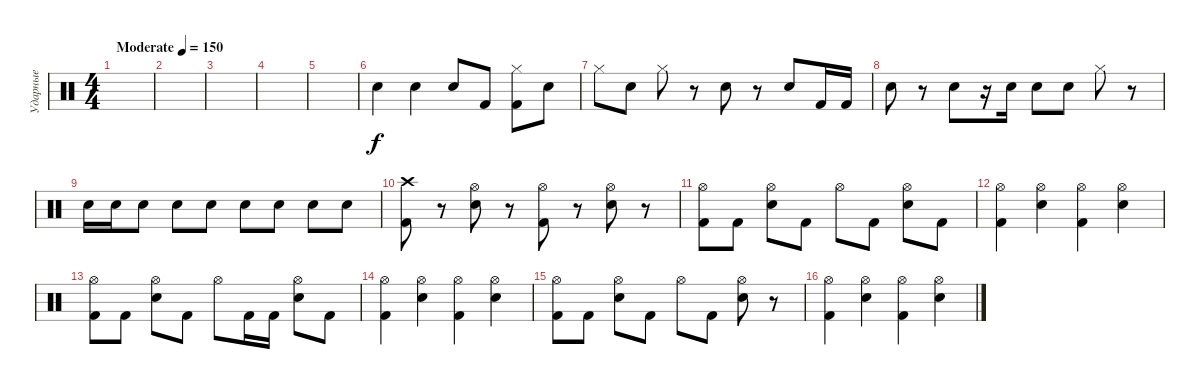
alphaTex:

\track ("Ударные" "Ударные") {instrument percussion}
\staff
\articulation defaults
\ts (4 4)
\tempo (150 "Moderate")
\clef neutral
\ks c
|
|
|
|
|
"Snare (hit) 2".4 "Snare (hit) 2".4 "Snare (hit) 2".8 "Kick (hit) 2".8 ("Kick (hit) 2" "Hi-Hat (closed)").8 "Snare (hit) 2".8 |
"Hi-Hat (closed)".8 "Snare (hit) 2".8 "Hi-Hat (closed)".8 r.8 "Snare (hit) 2".8 r.8 "Snare (hit) 2".8 "Kick (hit) 2".16 "Kick (hit) 2".16 |
"Snare (hit) 2".8 r.8 "Snare (hit) 2".8 r.16 "Snare (hit) 2".16 "Snare (hit) 2".8 "Snare (hit) 2".8 "Hi-Hat (closed)".8 r.8 |
"Snare (hit) 2".16 "Snare (hit) 2".16 "Snare (hit) 2".8 "Snare (hit) 2".8 "Snare (hit) 2".8 "Snare (hit) 2".8 "Snare (hit) 2".8 "Snare (hit) 2".8 "Snare (hit) 2".8 |
("Kick (hit) 2" "Crash high (hit)").8 r.8 ("Snare (hit) 2" "Hi-Hat (open)").8 r.8 ("Kick (hit) 2" "Hi-Hat (open)").8 r.8 ("Snare (hit) 2" "Hi-Hat (open)").8 r.8 |
("Kick (hit) 2" "Hi-Hat (open)").8 "Kick (hit) 2".8 ("Snare (hit) 2" "Hi-Hat (open)").8 "Kick (hit) 2".8 "Hi-Hat (open)".8 "Kick (hit) 2".8 ("Snare (hit) 2" "Hi-Hat (open)").8 "Kick (hit) 2".8 |
("Kick (hit) 2" "Hi-Hat (open)").4 ("Snare (hit) 2" "Hi-Hat (open)").4 ("Kick (hit) 2" "Hi-Hat (open)").4 ("Snare (hit) 2" "Hi-Hat (open)").4 |
("Kick (hit) 2" "Hi-Hat (open)").8 "Kick (hit) 2".8 ("Snare (hit) 2" "Hi-Hat (open)").8 "Kick (hit) 2".8 "Hi-Hat (open)".8 "Kick (hit) 2".16 "Kick (hit) 2".16 ("Snare (hit) 2" "Hi-Hat (open)").8 "Kick (hit) 2".8 |
("Kick (hit) 2" "Hi-Hat (open)").4 ("Snare (hit) 2" "Hi-Hat (open)").4 ("Kick (hit) 2" "Hi-Hat (open)").4 ("Snare (hit) 2" "Hi-Hat (open)").4 |
("Kick (hit) 2" "Hi-Hat (open)").8 "Kick (hit) 2".8 ("Snare (hit) 2" "Hi-Hat (open)").8 "Kick (hit) 2".8 "Hi-Hat (open)".8 "Kick (hit) 2".8 ("Snare (hit) 2" "Hi-Hat (open)").8 r.8 |
("Kick (hit) 2" "Hi-Hat (open)").4 ("Snare (hit) 2" "Hi-Hat (open)").4 ("Kick (hit) 2" "Hi-Hat (open)").4 ("Snare (hit) 2" "Hi-Hat (open)").4
